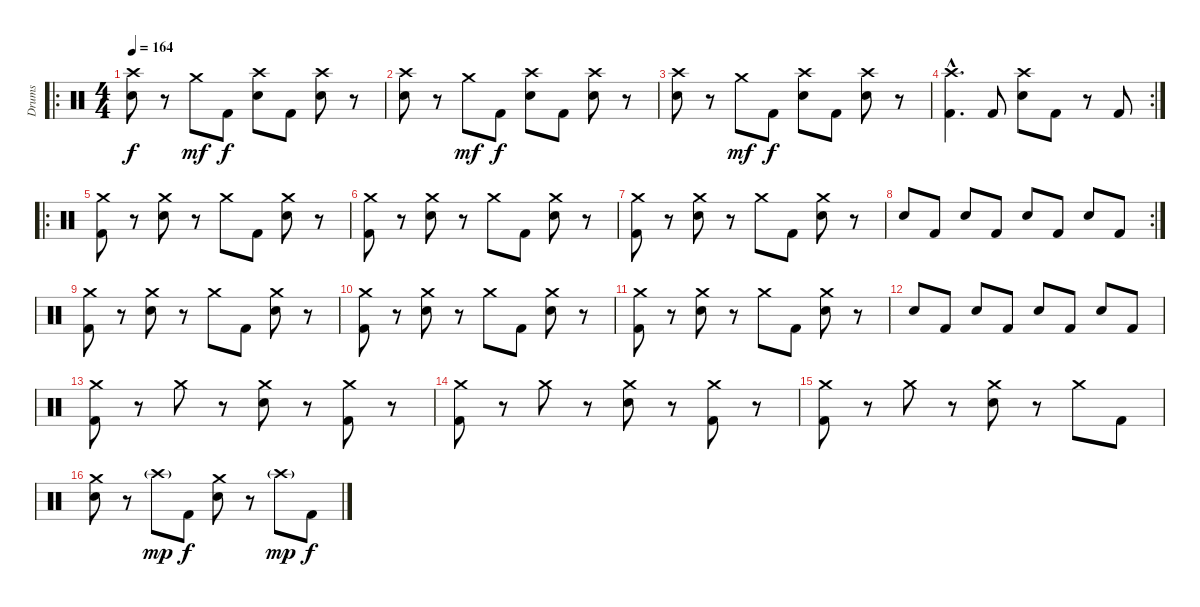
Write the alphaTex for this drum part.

\track ("Drums" "Drums") {instrument percussion}
\staff {score}
\articulation defaults
\ro
\ts (4 4)
\tempo 164
\clef neutral
\ks c
("Crash high (hit)" "Snare (hit) 2").8{dy f} r.8 "Crash medium (hit)".8{dy mf} "Kick (hit) 2".8{dy f} ("Crash high (hit)" "Snare (hit) 2").8 "Kick (hit) 2".8 ("Crash high (hit)" "Snare (hit) 2").8 r.8 |
("Crash high (hit)" "Snare (hit) 2").8 r.8 "Crash medium (hit)".8{dy mf} "Kick (hit) 2".8{dy f} ("Crash high (hit)" "Snare (hit) 2").8 "Kick (hit) 2".8 ("Crash high (hit)" "Snare (hit) 2").8 r.8 |
("Crash high (hit)" "Snare (hit) 2").8 r.8 "Crash medium (hit)".8{dy mf} "Kick (hit) 2".8{dy f} ("Crash high (hit)" "Snare (hit) 2").8 "Kick (hit) 2".8 ("Crash high (hit)" "Snare (hit) 2").8 r.8 |
\rc 2
("Crash high (hit)"{hac} "Kick (hit) 2"{hac}).4{d} "Kick (hit) 2".8 ("Crash high (hit)" "Snare (hit) 2").8 "Kick (hit) 2".8 r.8 "Kick (hit) 2".8 |
\ro
("Crash medium (hit)" "Kick (hit) 2").8 r.8 ("Crash medium (hit)" "Snare (hit) 2").8 r.8 "Crash medium (hit)".8 "Kick (hit) 2".8 ("Crash medium (hit)" "Snare (hit) 2").8 r.8 |
("Crash medium (hit)" "Kick (hit) 2").8 r.8 ("Crash medium (hit)" "Snare (hit) 2").8 r.8 "Crash medium (hit)".8 "Kick (hit) 2".8 ("Crash medium (hit)" "Snare (hit) 2").8 r.8 |
("Crash medium (hit)" "Kick (hit) 2").8 r.8 ("Crash medium (hit)" "Snare (hit) 2").8 r.8 "Crash medium (hit)".8 "Kick (hit) 2".8 ("Crash medium (hit)" "Snare (hit) 2").8 r.8 |
\rc 2 "Snare (hit) 2".8 "Kick (hit) 2".8 "Snare (hit) 2".8 "Kick (hit) 2".8 "Snare (hit) 2".8 "Kick (hit) 2".8 "Snare (hit) 2".8 "Kick (hit) 2".8
|
("Crash medium (hit)" "Kick (hit) 2").8 r.8 ("Crash medium (hit)" "Snare (hit) 2").8 r.8 "Crash medium (hit)".8 "Kick (hit) 2".8 ("Crash medium (hit)" "Snare (hit) 2").8 r.8 |
("Crash medium (hit)" "Kick (hit) 2").8 r.8 ("Crash medium (hit)" "Snare (hit) 2").8 r.8 "Crash medium (hit)".8 "Kick (hit) 2".8 ("Crash medium (hit)" "Snare (hit) 2").8 r.8 |
("Crash medium (hit)" "Kick (hit) 2").8 r.8 ("Crash medium (hit)" "Snare (hit) 2").8 r.8 "Crash medium (hit)".8 "Kick (hit) 2".8 ("Crash medium (hit)" "Snare (hit) 2").8 r.8 |
"Snare (hit) 2".8 "Kick (hit) 2".8 "Snare (hit) 2".8 "Kick (hit) 2".8 "Snare (hit) 2".8 "Kick (hit) 2".8 "Snare (hit) 2".8 "Kick (hit) 2".8 |
("Crash medium (hit)" "Kick (hit) 2").8 r.8 "Crash medium (hit)".8 r.8 ("Crash medium (hit)" "Snare (hit) 2").8 r.8 ("Crash medium (hit)" "Kick (hit) 2").8 r.8 |
("Crash medium (hit)" "Kick (hit) 2").8 r.8 "Crash medium (hit)".8 r.8 ("Crash medium (hit)" "Snare (hit) 2").8 r.8 ("Crash medium (hit)" "Kick (hit) 2").8 r.8 |
("Crash medium (hit)" "Kick (hit) 2").8 r.8 "Crash medium (hit)".8 r.8 ("Crash medium (hit)" "Snare (hit) 2").8 r.8 "Crash medium (hit)".8 "Kick (hit) 2".8 |
("Crash medium (hit)" "Snare (hit) 2").8 r.8 "Crash high (hit)"{g}.8{dy mp} "Kick (hit) 2".8{dy f} ("Crash medium (hit)" "Snare (hit) 2").8 r.8 "Crash high (hit)"{g}.8{dy mp} "Kick (hit) 2".8{dy f}
